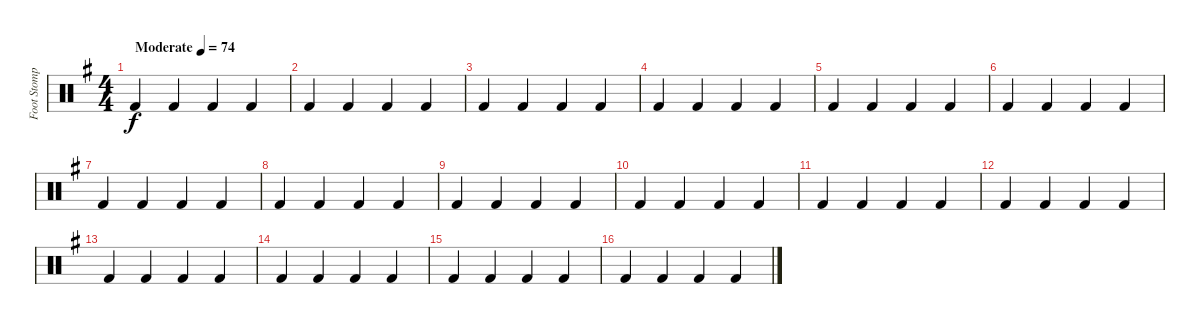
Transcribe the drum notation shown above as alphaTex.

\track ("Foot Stomp" "Foot Stomp") {instrument percussion}
\staff {score}
\articulation defaults
\ts (4 4)
\tempo (74 "Moderate")
\clef neutral
\ks g "Kick (hit) 2".4{dy f} "Kick (hit) 2".4 "Kick (hit) 2".4 "Kick (hit) 2".4
|
"Kick (hit) 2".4 "Kick (hit) 2".4 "Kick (hit) 2".4 "Kick (hit) 2".4 |
"Kick (hit) 2".4 "Kick (hit) 2".4 "Kick (hit) 2".4 "Kick (hit) 2".4 |
"Kick (hit) 2".4 "Kick (hit) 2".4 "Kick (hit) 2".4 "Kick (hit) 2".4 |
"Kick (hit) 2".4 "Kick (hit) 2".4 "Kick (hit) 2".4 "Kick (hit) 2".4 |
"Kick (hit) 2".4 "Kick (hit) 2".4 "Kick (hit) 2".4 "Kick (hit) 2".4 |
"Kick (hit) 2".4 "Kick (hit) 2".4 "Kick (hit) 2".4 "Kick (hit) 2".4 |
"Kick (hit) 2".4 "Kick (hit) 2".4 "Kick (hit) 2".4 "Kick (hit) 2".4 |
"Kick (hit) 2".4 "Kick (hit) 2".4 "Kick (hit) 2".4 "Kick (hit) 2".4 |
"Kick (hit) 2".4 "Kick (hit) 2".4 "Kick (hit) 2".4 "Kick (hit) 2".4 |
"Kick (hit) 2".4 "Kick (hit) 2".4 "Kick (hit) 2".4 "Kick (hit) 2".4 |
"Kick (hit) 2".4 "Kick (hit) 2".4 "Kick (hit) 2".4 "Kick (hit) 2".4 |
"Kick (hit) 2".4 "Kick (hit) 2".4 "Kick (hit) 2".4 "Kick (hit) 2".4 |
"Kick (hit) 2".4 "Kick (hit) 2".4 "Kick (hit) 2".4 "Kick (hit) 2".4 |
"Kick (hit) 2".4 "Kick (hit) 2".4 "Kick (hit) 2".4 "Kick (hit) 2".4 |
"Kick (hit) 2".4 "Kick (hit) 2".4 "Kick (hit) 2".4 "Kick (hit) 2".4
